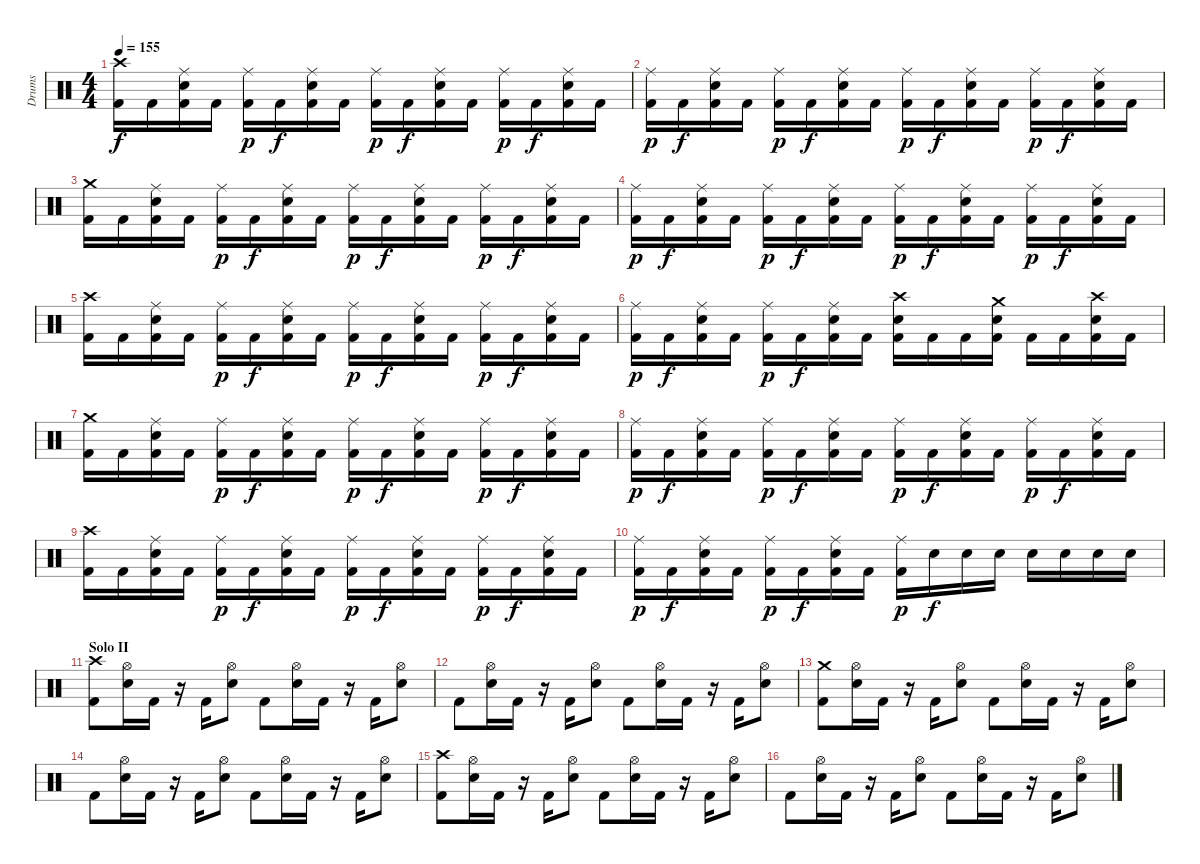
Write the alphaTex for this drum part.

\track ("Drums" "Drums") {instrument percussion}
\staff {score}
\articulation defaults
\ts (4 4)
\tempo 155
\clef neutral
\ks c
("Crash high (hit)" "Kick (hit) 2").16{dy f} "Kick (hit) 2".16 ("Ride (middle)" "Snare (hit) 2" "Kick (hit) 2").16 "Kick (hit) 2".16 ("Ride (middle)" "Kick (hit) 2").16{dy p} "Kick (hit) 2".16{dy f} ("Ride (middle)" "Snare (hit) 2" "Kick (hit) 2").16 "Kick (hit) 2".16 ("Ride (middle)" "Kick (hit) 2").16{dy p} "Kick (hit) 2".16{dy f} ("Ride (middle)" "Snare (hit) 2" "Kick (hit) 2").16 "Kick (hit) 2".16 ("Ride (middle)" "Kick (hit) 2").16{dy p} "Kick (hit) 2".16{dy f} ("Ride (middle)" "Snare (hit) 2" "Kick (hit) 2").16 "Kick (hit) 2".16 |
("Ride (middle)" "Kick (hit) 2").16{dy p} "Kick (hit) 2".16{dy f} ("Ride (middle)" "Snare (hit) 2" "Kick (hit) 2").16 "Kick (hit) 2".16 ("Ride (middle)" "Kick (hit) 2").16{dy p} "Kick (hit) 2".16{dy f} ("Ride (middle)" "Snare (hit) 2" "Kick (hit) 2").16 "Kick (hit) 2".16 ("Ride (middle)" "Kick (hit) 2").16{dy p} "Kick (hit) 2".16{dy f} ("Ride (middle)" "Snare (hit) 2" "Kick (hit) 2").16 "Kick (hit) 2".16 ("Ride (middle)" "Kick (hit) 2").16{dy p} "Kick (hit) 2".16{dy f} ("Ride (middle)" "Snare (hit) 2" "Kick (hit) 2").16 "Kick (hit) 2".16 |
("Crash medium (hit)" "Kick (hit) 2").16 "Kick (hit) 2".16 ("Ride (middle)" "Snare (hit) 2" "Kick (hit) 2").16 "Kick (hit) 2".16 ("Ride (middle)" "Kick (hit) 2").16{dy p} "Kick (hit) 2".16{dy f} ("Ride (middle)" "Snare (hit) 2" "Kick (hit) 2").16 "Kick (hit) 2".16 ("Ride (middle)" "Kick (hit) 2").16{dy p} "Kick (hit) 2".16{dy f} ("Ride (middle)" "Snare (hit) 2" "Kick (hit) 2").16 "Kick (hit) 2".16 ("Ride (middle)" "Kick (hit) 2").16{dy p} "Kick (hit) 2".16{dy f} ("Ride (middle)" "Snare (hit) 2" "Kick (hit) 2").16 "Kick (hit) 2".16 |
("Ride (middle)" "Kick (hit) 2").16{dy p} "Kick (hit) 2".16{dy f} ("Ride (middle)" "Snare (hit) 2" "Kick (hit) 2").16 "Kick (hit) 2".16 ("Ride (middle)" "Kick (hit) 2").16{dy p} "Kick (hit) 2".16{dy f} ("Ride (middle)" "Snare (hit) 2" "Kick (hit) 2").16 "Kick (hit) 2".16 ("Ride (middle)" "Kick (hit) 2").16{dy p} "Kick (hit) 2".16{dy f} ("Ride (middle)" "Snare (hit) 2" "Kick (hit) 2").16 "Kick (hit) 2".16 ("Ride (middle)" "Kick (hit) 2").16{dy p} "Kick (hit) 2".16{dy f} ("Ride (middle)" "Snare (hit) 2" "Kick (hit) 2").16 "Kick (hit) 2".16 |
("Crash high (hit)" "Kick (hit) 2").16 "Kick (hit) 2".16 ("Ride (middle)" "Snare (hit) 2" "Kick (hit) 2").16 "Kick (hit) 2".16 ("Ride (middle)" "Kick (hit) 2").16{dy p} "Kick (hit) 2".16{dy f} ("Ride (middle)" "Snare (hit) 2" "Kick (hit) 2").16 "Kick (hit) 2".16 ("Ride (middle)" "Kick (hit) 2").16{dy p} "Kick (hit) 2".16{dy f} ("Ride (middle)" "Snare (hit) 2" "Kick (hit) 2").16 "Kick (hit) 2".16 ("Ride (middle)" "Kick (hit) 2").16{dy p} "Kick (hit) 2".16{dy f} ("Ride (middle)" "Snare (hit) 2" "Kick (hit) 2").16 "Kick (hit) 2".16 |
("Ride (middle)" "Kick (hit) 2").16{dy p} "Kick (hit) 2".16{dy f} ("Ride (middle)" "Snare (hit) 2" "Kick (hit) 2").16 "Kick (hit) 2".16 ("Ride (middle)" "Kick (hit) 2").16{dy p} "Kick (hit) 2".16{dy f} ("Ride (middle)" "Snare (hit) 2" "Kick (hit) 2").16 "Kick (hit) 2".16 ("Crash high (hit)" "Snare (hit) 2" "Kick (hit) 2").16 "Kick (hit) 2".16 "Kick (hit) 2".16 ("Crash medium (hit)" "Snare (hit) 2" "Kick (hit) 2").16 "Kick (hit) 2".16 "Kick (hit) 2".16 ("Crash high (hit)" "Snare (hit) 2" "Kick (hit) 2").16 "Kick (hit) 2".16 |
("Crash medium (hit)" "Kick (hit) 2").16 "Kick (hit) 2".16 ("Ride (middle)" "Snare (hit) 2" "Kick (hit) 2").16 "Kick (hit) 2".16 ("Ride (middle)" "Kick (hit) 2").16{dy p} "Kick (hit) 2".16{dy f} ("Ride (middle)" "Snare (hit) 2" "Kick (hit) 2").16 "Kick (hit) 2".16 ("Ride (middle)" "Kick (hit) 2").16{dy p} "Kick (hit) 2".16{dy f} ("Ride (middle)" "Snare (hit) 2" "Kick (hit) 2").16 "Kick (hit) 2".16 ("Ride (middle)" "Kick (hit) 2").16{dy p} "Kick (hit) 2".16{dy f} ("Ride (middle)" "Snare (hit) 2" "Kick (hit) 2").16 "Kick (hit) 2".16 |
("Ride (middle)" "Kick (hit) 2").16{dy p} "Kick (hit) 2".16{dy f} ("Ride (middle)" "Snare (hit) 2" "Kick (hit) 2").16 "Kick (hit) 2".16 ("Ride (middle)" "Kick (hit) 2").16{dy p} "Kick (hit) 2".16{dy f} ("Ride (middle)" "Snare (hit) 2" "Kick (hit) 2").16 "Kick (hit) 2".16 ("Ride (middle)" "Kick (hit) 2").16{dy p} "Kick (hit) 2".16{dy f} ("Ride (middle)" "Snare (hit) 2" "Kick (hit) 2").16 "Kick (hit) 2".16 ("Ride (middle)" "Kick (hit) 2").16{dy p} "Kick (hit) 2".16{dy f} ("Ride (middle)" "Snare (hit) 2" "Kick (hit) 2").16 "Kick (hit) 2".16 |
("Crash high (hit)" "Kick (hit) 2").16 "Kick (hit) 2".16 ("Ride (middle)" "Snare (hit) 2" "Kick (hit) 2").16 "Kick (hit) 2".16 ("Ride (middle)" "Kick (hit) 2").16{dy p} "Kick (hit) 2".16{dy f} ("Ride (middle)" "Snare (hit) 2" "Kick (hit) 2").16 "Kick (hit) 2".16 ("Ride (middle)" "Kick (hit) 2").16{dy p} "Kick (hit) 2".16{dy f} ("Ride (middle)" "Snare (hit) 2" "Kick (hit) 2").16 "Kick (hit) 2".16 ("Ride (middle)" "Kick (hit) 2").16{dy p} "Kick (hit) 2".16{dy f} ("Ride (middle)" "Snare (hit) 2" "Kick (hit) 2").16 "Kick (hit) 2".16 |
("Ride (middle)" "Kick (hit) 2").16{dy p} "Kick (hit) 2".16{dy f} ("Ride (middle)" "Snare (hit) 2" "Kick (hit) 2").16 "Kick (hit) 2".16 ("Ride (middle)" "Kick (hit) 2").16{dy p} "Kick (hit) 2".16{dy f} ("Ride (middle)" "Snare (hit) 2" "Kick (hit) 2").16 "Kick (hit) 2".16 ("Ride (middle)" "Kick (hit) 2").16{dy p} "Snare (hit) 2".16{dy f} "Snare (hit) 2".16 "Snare (hit) 2".16 "Snare (hit) 2".16 "Snare (hit) 2".16 "Snare (hit) 2".16 "Snare (hit) 2".16 |
\section ("" "Solo II")
("Crash high (hit)" "Kick (hit) 2").8 ("Hi-Hat (open)" "Snare (hit) 2").16 "Kick (hit) 2".16 r.16 "Kick (hit) 2".16 ("Hi-Hat (open)" "Snare (hit) 2").8 "Kick (hit) 2".8 ("Hi-Hat (open)" "Snare (hit) 2").16 "Kick (hit) 2".16 r.16 "Kick (hit) 2".16 ("Hi-Hat (open)" "Snare (hit) 2").8 |
"Kick (hit) 2".8 ("Hi-Hat (open)" "Snare (hit) 2").16 "Kick (hit) 2".16 r.16 "Kick (hit) 2".16 ("Hi-Hat (open)" "Snare (hit) 2").8 "Kick (hit) 2".8 ("Hi-Hat (open)" "Snare (hit) 2").16 "Kick (hit) 2".16 r.16 "Kick (hit) 2".16 ("Hi-Hat (open)" "Snare (hit) 2").8 |
("Crash medium (hit)" "Kick (hit) 2").8 ("Hi-Hat (open)" "Snare (hit) 2").16 "Kick (hit) 2".16 r.16 "Kick (hit) 2".16 ("Hi-Hat (open)" "Snare (hit) 2").8 "Kick (hit) 2".8 ("Hi-Hat (open)" "Snare (hit) 2").16 "Kick (hit) 2".16 r.16 "Kick (hit) 2".16 ("Hi-Hat (open)" "Snare (hit) 2").8 |
"Kick (hit) 2".8 ("Hi-Hat (open)" "Snare (hit) 2").16 "Kick (hit) 2".16 r.16 "Kick (hit) 2".16 ("Hi-Hat (open)" "Snare (hit) 2").8 "Kick (hit) 2".8 ("Hi-Hat (open)" "Snare (hit) 2").16 "Kick (hit) 2".16 r.16 "Kick (hit) 2".16 ("Hi-Hat (open)" "Snare (hit) 2").8 |
("Crash high (hit)" "Kick (hit) 2").8 ("Hi-Hat (open)" "Snare (hit) 2").16 "Kick (hit) 2".16 r.16 "Kick (hit) 2".16 ("Hi-Hat (open)" "Snare (hit) 2").8 "Kick (hit) 2".8 ("Hi-Hat (open)" "Snare (hit) 2").16 "Kick (hit) 2".16 r.16 "Kick (hit) 2".16 ("Hi-Hat (open)" "Snare (hit) 2").8 |
"Kick (hit) 2".8 ("Hi-Hat (open)" "Snare (hit) 2").16 "Kick (hit) 2".16 r.16 "Kick (hit) 2".16 ("Hi-Hat (open)" "Snare (hit) 2").8 "Kick (hit) 2".8 ("Hi-Hat (open)" "Snare (hit) 2").16 "Kick (hit) 2".16 r.16 "Kick (hit) 2".16 ("Hi-Hat (open)" "Snare (hit) 2").8
